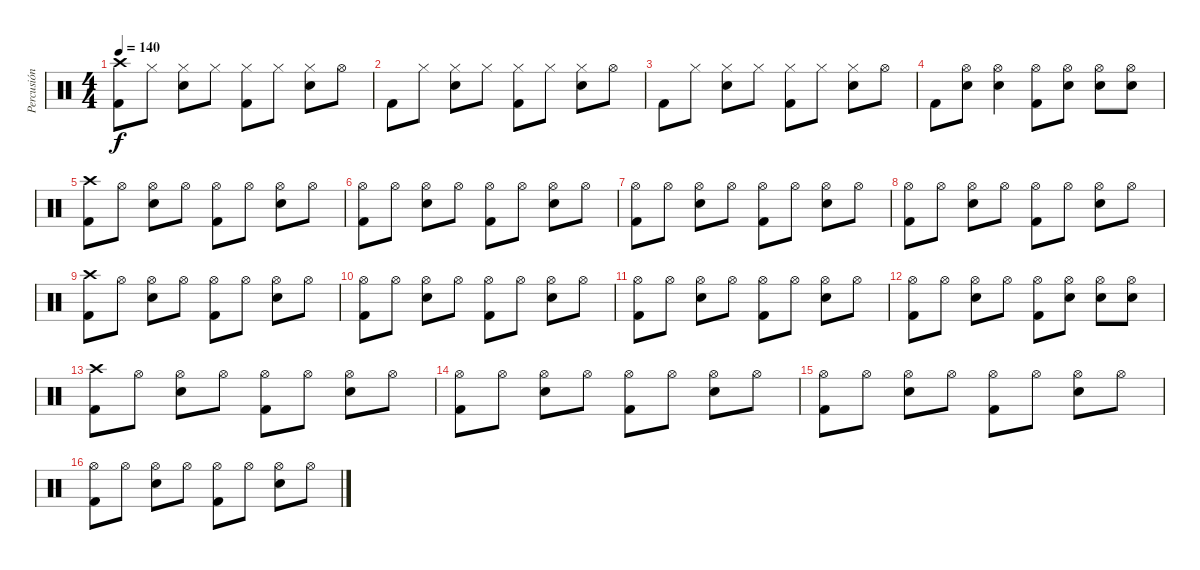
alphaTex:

\track ("Percusión" "Percusión") {instrument percussion}
\staff {score}
\articulation defaults
\ts (4 4)
\tempo 140
\clef neutral
\ks c
("Crash high (hit)" "Kick (hit) 2").8{dy f} "Hi-Hat (closed)".8 ("Hi-Hat (closed)" "Electric Snare (hit)").8 "Hi-Hat (closed)".8 ("Hi-Hat (closed)" "Kick (hit) 2").8 "Hi-Hat (closed)".8 ("Hi-Hat (closed)" "Electric Snare (hit)").8 "Hi-Hat (open)".8 |
"Kick (hit) 2".8 "Hi-Hat (closed)".8 ("Hi-Hat (closed)" "Electric Snare (hit)").8 "Hi-Hat (closed)".8 ("Hi-Hat (closed)" "Kick (hit) 2").8 "Hi-Hat (closed)".8 ("Hi-Hat (closed)" "Electric Snare (hit)").8 "Hi-Hat (open)".8 |
"Kick (hit) 2".8 "Hi-Hat (closed)".8 ("Hi-Hat (closed)" "Electric Snare (hit)").8 "Hi-Hat (closed)".8 ("Hi-Hat (closed)" "Kick (hit) 2").8 "Hi-Hat (closed)".8 ("Hi-Hat (closed)" "Electric Snare (hit)").8 "Hi-Hat (open)".8 |
"Kick (hit) 2".8 ("Hi-Hat (open)" "Electric Snare (hit)").8 ("Hi-Hat (open)" "Electric Snare (hit)").4 ("Hi-Hat (open)" "Kick (hit) 2").8 ("Hi-Hat (open)" "Electric Snare (hit)").8 ("Hi-Hat (open)" "Electric Snare (hit)").8 ("Hi-Hat (open)" "Electric Snare (hit)").8 |
("Crash high (hit)" "Kick (hit) 2").8 "Hi-Hat (open)".8 ("Hi-Hat (open)" "Electric Snare (hit)").8 "Hi-Hat (open)".8 ("Hi-Hat (open)" "Kick (hit) 2").8 "Hi-Hat (open)".8 ("Hi-Hat (open)" "Electric Snare (hit)").8 "Hi-Hat (open)".8 |
("Hi-Hat (open)" "Kick (hit) 2").8 "Hi-Hat (open)".8 ("Hi-Hat (open)" "Electric Snare (hit)").8 "Hi-Hat (open)".8 ("Hi-Hat (open)" "Kick (hit) 2").8 "Hi-Hat (open)".8 ("Hi-Hat (open)" "Electric Snare (hit)").8 "Hi-Hat (open)".8 |
("Hi-Hat (open)" "Kick (hit) 2").8 "Hi-Hat (open)".8 ("Hi-Hat (open)" "Electric Snare (hit)").8 "Hi-Hat (open)".8 ("Hi-Hat (open)" "Kick (hit) 2").8 "Hi-Hat (open)".8 ("Hi-Hat (open)" "Electric Snare (hit)").8 "Hi-Hat (open)".8 |
("Hi-Hat (open)" "Kick (hit) 2").8 "Hi-Hat (open)".8 ("Hi-Hat (open)" "Electric Snare (hit)").8 "Hi-Hat (open)".8 ("Hi-Hat (open)" "Kick (hit) 2").8 "Hi-Hat (open)".8 ("Hi-Hat (open)" "Electric Snare (hit)").8 "Hi-Hat (open)".8 |
("Crash high (hit)" "Kick (hit) 2").8 "Hi-Hat (open)".8 ("Hi-Hat (open)" "Electric Snare (hit)").8 "Hi-Hat (open)".8 ("Hi-Hat (open)" "Kick (hit) 2").8 "Hi-Hat (open)".8 ("Hi-Hat (open)" "Electric Snare (hit)").8 "Hi-Hat (open)".8 |
("Hi-Hat (open)" "Kick (hit) 2").8 "Hi-Hat (open)".8 ("Hi-Hat (open)" "Electric Snare (hit)").8 "Hi-Hat (open)".8 ("Hi-Hat (open)" "Kick (hit) 2").8 "Hi-Hat (open)".8 ("Hi-Hat (open)" "Electric Snare (hit)").8 "Hi-Hat (open)".8 |
("Hi-Hat (open)" "Kick (hit) 2").8 "Hi-Hat (open)".8 ("Hi-Hat (open)" "Electric Snare (hit)").8 "Hi-Hat (open)".8 ("Hi-Hat (open)" "Kick (hit) 2").8 "Hi-Hat (open)".8 ("Hi-Hat (open)" "Electric Snare (hit)").8 "Hi-Hat (open)".8 |
("Hi-Hat (open)" "Kick (hit) 2").8 "Hi-Hat (open)".8 ("Hi-Hat (open)" "Electric Snare (hit)").8 "Hi-Hat (open)".8 ("Hi-Hat (open)" "Kick (hit) 2").8 ("Hi-Hat (open)" "Electric Snare (hit)").8 ("Hi-Hat (open)" "Electric Snare (hit)").8 ("Hi-Hat (open)" "Electric Snare (hit)").8 |
("Crash high (hit)" "Kick (hit) 2").8 "Hi-Hat (open)".8 ("Hi-Hat (open)" "Electric Snare (hit)").8 "Hi-Hat (open)".8 ("Hi-Hat (open)" "Kick (hit) 2").8 "Hi-Hat (open)".8 ("Hi-Hat (open)" "Electric Snare (hit)").8 "Hi-Hat (open)".8 |
("Hi-Hat (open)" "Kick (hit) 2").8 "Hi-Hat (open)".8 ("Hi-Hat (open)" "Electric Snare (hit)").8 "Hi-Hat (open)".8 ("Hi-Hat (open)" "Kick (hit) 2").8 "Hi-Hat (open)".8 ("Hi-Hat (open)" "Electric Snare (hit)").8 "Hi-Hat (open)".8 |
("Hi-Hat (open)" "Kick (hit) 2").8 "Hi-Hat (open)".8 ("Hi-Hat (open)" "Electric Snare (hit)").8 "Hi-Hat (open)".8 ("Hi-Hat (open)" "Kick (hit) 2").8 "Hi-Hat (open)".8 ("Hi-Hat (open)" "Electric Snare (hit)").8 "Hi-Hat (open)".8 |
("Hi-Hat (open)" "Kick (hit) 2").8 "Hi-Hat (open)".8 ("Hi-Hat (open)" "Electric Snare (hit)").8 "Hi-Hat (open)".8 ("Hi-Hat (open)" "Kick (hit) 2").8 "Hi-Hat (open)".8 ("Hi-Hat (open)" "Electric Snare (hit)").8 "Hi-Hat (open)".8
